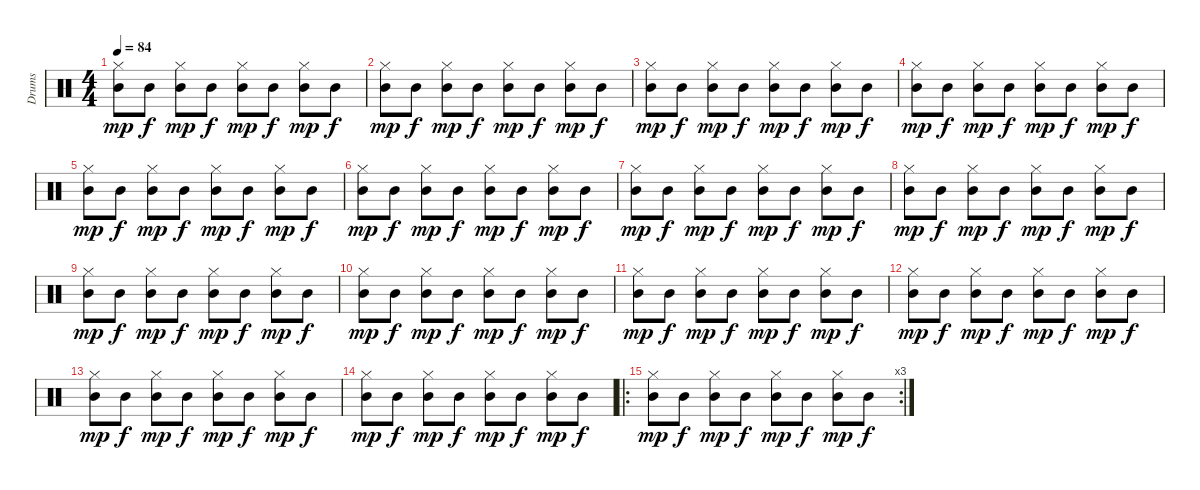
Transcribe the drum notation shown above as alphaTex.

\track ("Drums" "Drums") {instrument percussion}
\staff {score}
\articulation defaults
\ts (4 4)
\tempo 84
\clef neutral
\ks c
("Mid Tom (hit)" "Hi-Hat (closed)").8{dy mp} "Mid Tom (hit)".8{dy f} ("Mid Tom (hit)" "Hi-Hat (closed)").8{dy mp} "Mid Tom (hit)".8{dy f} ("Mid Tom (hit)" "Hi-Hat (closed)").8{dy mp} "Mid Tom (hit)".8{dy f} ("Mid Tom (hit)" "Hi-Hat (closed)").8{dy mp} "Mid Tom (hit)".8{dy f} |
("Mid Tom (hit)" "Hi-Hat (closed)").8{dy mp} "Mid Tom (hit)".8{dy f} ("Mid Tom (hit)" "Hi-Hat (closed)").8{dy mp} "Mid Tom (hit)".8{dy f} ("Mid Tom (hit)" "Hi-Hat (closed)").8{dy mp} "Mid Tom (hit)".8{dy f} ("Mid Tom (hit)" "Hi-Hat (closed)").8{dy mp} "Mid Tom (hit)".8{dy f} |
("Mid Tom (hit)" "Hi-Hat (closed)").8{dy mp} "Mid Tom (hit)".8{dy f} ("Mid Tom (hit)" "Hi-Hat (closed)").8{dy mp} "Mid Tom (hit)".8{dy f} ("Mid Tom (hit)" "Hi-Hat (closed)").8{dy mp} "Mid Tom (hit)".8{dy f} ("Mid Tom (hit)" "Hi-Hat (closed)").8{dy mp} "Mid Tom (hit)".8{dy f} |
("Mid Tom (hit)" "Hi-Hat (closed)").8{dy mp} "Mid Tom (hit)".8{dy f} ("Mid Tom (hit)" "Hi-Hat (closed)").8{dy mp} "Mid Tom (hit)".8{dy f} ("Mid Tom (hit)" "Hi-Hat (closed)").8{dy mp} "Mid Tom (hit)".8{dy f} ("Mid Tom (hit)" "Hi-Hat (closed)").8{dy mp} "Mid Tom (hit)".8{dy f} |
("Mid Tom (hit)" "Hi-Hat (closed)").8{dy mp} "Mid Tom (hit)".8{dy f} ("Mid Tom (hit)" "Hi-Hat (closed)").8{dy mp} "Mid Tom (hit)".8{dy f} ("Mid Tom (hit)" "Hi-Hat (closed)").8{dy mp} "Mid Tom (hit)".8{dy f} ("Mid Tom (hit)" "Hi-Hat (closed)").8{dy mp} "Mid Tom (hit)".8{dy f} |
("Mid Tom (hit)" "Hi-Hat (closed)").8{dy mp} "Mid Tom (hit)".8{dy f} ("Mid Tom (hit)" "Hi-Hat (closed)").8{dy mp} "Mid Tom (hit)".8{dy f} ("Mid Tom (hit)" "Hi-Hat (closed)").8{dy mp} "Mid Tom (hit)".8{dy f} ("Mid Tom (hit)" "Hi-Hat (closed)").8{dy mp} "Mid Tom (hit)".8{dy f} |
("Mid Tom (hit)" "Hi-Hat (closed)").8{dy mp} "Mid Tom (hit)".8{dy f} ("Mid Tom (hit)" "Hi-Hat (closed)").8{dy mp} "Mid Tom (hit)".8{dy f} ("Mid Tom (hit)" "Hi-Hat (closed)").8{dy mp} "Mid Tom (hit)".8{dy f} ("Mid Tom (hit)" "Hi-Hat (closed)").8{dy mp} "Mid Tom (hit)".8{dy f} |
("Mid Tom (hit)" "Hi-Hat (closed)").8{dy mp} "Mid Tom (hit)".8{dy f} ("Mid Tom (hit)" "Hi-Hat (closed)").8{dy mp} "Mid Tom (hit)".8{dy f} ("Mid Tom (hit)" "Hi-Hat (closed)").8{dy mp} "Mid Tom (hit)".8{dy f} ("Mid Tom (hit)" "Hi-Hat (closed)").8{dy mp} "Mid Tom (hit)".8{dy f} |
("Mid Tom (hit)" "Hi-Hat (closed)").8{dy mp} "Mid Tom (hit)".8{dy f} ("Mid Tom (hit)" "Hi-Hat (closed)").8{dy mp} "Mid Tom (hit)".8{dy f} ("Mid Tom (hit)" "Hi-Hat (closed)").8{dy mp} "Mid Tom (hit)".8{dy f} ("Mid Tom (hit)" "Hi-Hat (closed)").8{dy mp} "Mid Tom (hit)".8{dy f} |
("Mid Tom (hit)" "Hi-Hat (closed)").8{dy mp} "Mid Tom (hit)".8{dy f} ("Mid Tom (hit)" "Hi-Hat (closed)").8{dy mp} "Mid Tom (hit)".8{dy f} ("Mid Tom (hit)" "Hi-Hat (closed)").8{dy mp} "Mid Tom (hit)".8{dy f} ("Mid Tom (hit)" "Hi-Hat (closed)").8{dy mp} "Mid Tom (hit)".8{dy f} |
("Mid Tom (hit)" "Hi-Hat (closed)").8{dy mp} "Mid Tom (hit)".8{dy f} ("Mid Tom (hit)" "Hi-Hat (closed)").8{dy mp} "Mid Tom (hit)".8{dy f} ("Mid Tom (hit)" "Hi-Hat (closed)").8{dy mp} "Mid Tom (hit)".8{dy f} ("Mid Tom (hit)" "Hi-Hat (closed)").8{dy mp} "Mid Tom (hit)".8{dy f} |
("Mid Tom (hit)" "Hi-Hat (closed)").8{dy mp} "Mid Tom (hit)".8{dy f} ("Mid Tom (hit)" "Hi-Hat (closed)").8{dy mp} "Mid Tom (hit)".8{dy f} ("Mid Tom (hit)" "Hi-Hat (closed)").8{dy mp} "Mid Tom (hit)".8{dy f} ("Mid Tom (hit)" "Hi-Hat (closed)").8{dy mp} "Mid Tom (hit)".8{dy f} |
("Mid Tom (hit)" "Hi-Hat (closed)").8{dy mp} "Mid Tom (hit)".8{dy f} ("Mid Tom (hit)" "Hi-Hat (closed)").8{dy mp} "Mid Tom (hit)".8{dy f} ("Mid Tom (hit)" "Hi-Hat (closed)").8{dy mp} "Mid Tom (hit)".8{dy f} ("Mid Tom (hit)" "Hi-Hat (closed)").8{dy mp} "Mid Tom (hit)".8{dy f} |
("Mid Tom (hit)" "Hi-Hat (closed)").8{dy mp} "Mid Tom (hit)".8{dy f} ("Mid Tom (hit)" "Hi-Hat (closed)").8{dy mp} "Mid Tom (hit)".8{dy f} ("Mid Tom (hit)" "Hi-Hat (closed)").8{dy mp} "Mid Tom (hit)".8{dy f} ("Mid Tom (hit)" "Hi-Hat (closed)").8{dy mp} "Mid Tom (hit)".8{dy f} |
\ro
\rc 3
("Mid Tom (hit)" "Hi-Hat (closed)").8{dy mp} "Mid Tom (hit)".8{dy f} ("Mid Tom (hit)" "Hi-Hat (closed)").8{dy mp} "Mid Tom (hit)".8{dy f} ("Mid Tom (hit)" "Hi-Hat (closed)").8{dy mp} "Mid Tom (hit)".8{dy f} ("Mid Tom (hit)" "Hi-Hat (closed)").8{dy mp} "Mid Tom (hit)".8{dy f}
